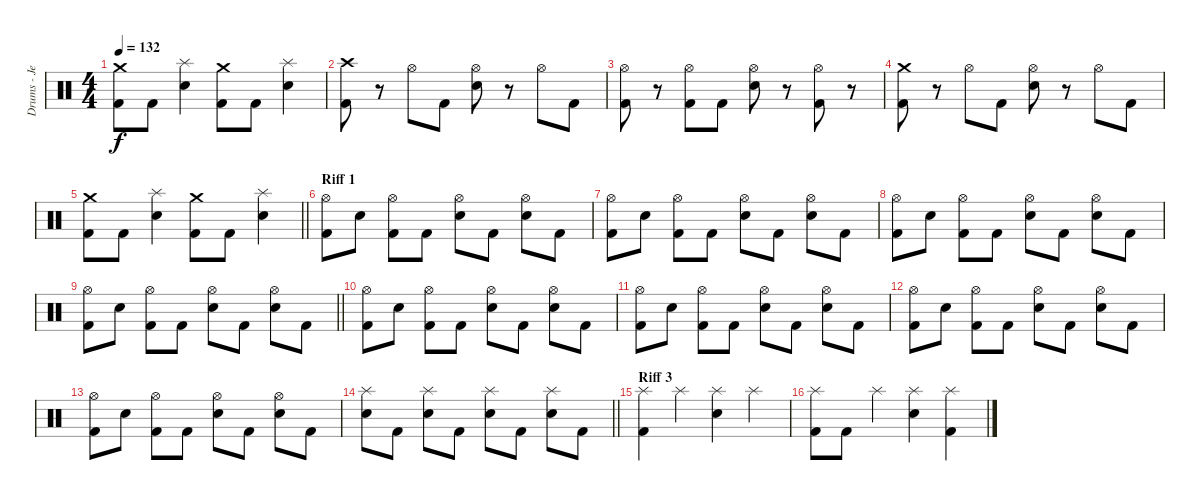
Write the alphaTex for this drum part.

\track ("Drums - Jess Margera" "Drums - Je") {instrument percussion}
\staff {score}
\articulation defaults
\ts (4 4)
\tempo 132
\clef neutral
\ks c
("Crash medium (hit)" "Kick (hit) 2").8{dy f} "Kick (hit) 2".8 ("Splash (hit)" "Electric Snare (hit)").4 ("Crash medium (hit)" "Kick (hit) 2").8 "Kick (hit) 2".8 ("Splash (hit)" "Electric Snare (hit)").4 |
("Crash high (hit)" "Kick (hit) 2").8 r.8 "Hi-Hat (open)".8 "Kick (hit) 2".8 ("Hi-Hat (open)" "Electric Snare (hit)").8 r.8 "Hi-Hat (open)".8 "Kick (hit) 2".8 |
("Hi-Hat (open)" "Kick (hit) 2").8 r.8 ("Hi-Hat (open)" "Kick (hit) 2").8 "Kick (hit) 2".8 ("Hi-Hat (open)" "Electric Snare (hit)").8 r.8 ("Hi-Hat (open)" "Kick (hit) 2").8 r.8 |
("Crash medium (hit)" "Kick (hit) 2").8 r.8 "Hi-Hat (open)".8 "Kick (hit) 2".8 ("Hi-Hat (open)" "Electric Snare (hit)").8 r.8 "Hi-Hat (open)".8 "Kick (hit) 2".8 |
\barLineRight lightlight
("Crash medium (hit)" "Kick (hit) 2").8 "Kick (hit) 2".8 ("Splash (hit)" "Electric Snare (hit)").4 ("Crash medium (hit)" "Kick (hit) 2").8 "Kick (hit) 2".8 ("Splash (hit)" "Electric Snare (hit)").4 |
\section ("" "Riff 1")
("Hi-Hat (open)" "Kick (hit) 2").8 "Electric Snare (hit)".8 ("Hi-Hat (open)" "Kick (hit) 2").8 "Kick (hit) 2".8 ("Hi-Hat (open)" "Electric Snare (hit)").8 "Kick (hit) 2".8 ("Hi-Hat (open)" "Electric Snare (hit)").8 "Kick (hit) 2".8 |
("Hi-Hat (open)" "Kick (hit) 2").8 "Electric Snare (hit)".8 ("Hi-Hat (open)" "Kick (hit) 2").8 "Kick (hit) 2".8 ("Hi-Hat (open)" "Electric Snare (hit)").8 "Kick (hit) 2".8 ("Hi-Hat (open)" "Electric Snare (hit)").8 "Kick (hit) 2".8 |
("Hi-Hat (open)" "Kick (hit) 2").8 "Electric Snare (hit)".8 ("Hi-Hat (open)" "Kick (hit) 2").8 "Kick (hit) 2".8 ("Hi-Hat (open)" "Electric Snare (hit)").8 "Kick (hit) 2".8 ("Hi-Hat (open)" "Electric Snare (hit)").8 "Kick (hit) 2".8 |
\barLineRight lightlight
("Hi-Hat (open)" "Kick (hit) 2").8 "Electric Snare (hit)".8 ("Hi-Hat (open)" "Kick (hit) 2").8 "Kick (hit) 2".8 ("Hi-Hat (open)" "Electric Snare (hit)").8 "Kick (hit) 2".8 ("Hi-Hat (open)" "Electric Snare (hit)").8 "Kick (hit) 2".8 |
("Hi-Hat (open)" "Kick (hit) 2").8 "Electric Snare (hit)".8 ("Hi-Hat (open)" "Kick (hit) 2").8 "Kick (hit) 2".8 ("Hi-Hat (open)" "Electric Snare (hit)").8 "Kick (hit) 2".8 ("Hi-Hat (open)" "Electric Snare (hit)").8 "Kick (hit) 2".8 |
("Hi-Hat (open)" "Kick (hit) 2").8 "Electric Snare (hit)".8 ("Hi-Hat (open)" "Kick (hit) 2").8 "Kick (hit) 2".8 ("Hi-Hat (open)" "Electric Snare (hit)").8 "Kick (hit) 2".8 ("Hi-Hat (open)" "Electric Snare (hit)").8 "Kick (hit) 2".8 |
("Hi-Hat (open)" "Kick (hit) 2").8 "Electric Snare (hit)".8 ("Hi-Hat (open)" "Kick (hit) 2").8 "Kick (hit) 2".8 ("Hi-Hat (open)" "Electric Snare (hit)").8 "Kick (hit) 2".8 ("Hi-Hat (open)" "Electric Snare (hit)").8 "Kick (hit) 2".8 |
("Hi-Hat (open)" "Kick (hit) 2").8 "Electric Snare (hit)".8 ("Hi-Hat (open)" "Kick (hit) 2").8 "Kick (hit) 2".8 ("Hi-Hat (open)" "Electric Snare (hit)").8 "Kick (hit) 2".8 ("Hi-Hat (open)" "Electric Snare (hit)").8 "Kick (hit) 2".8 |
\barLineRight lightlight
("Splash (hit)" "Electric Snare (hit)").8 "Kick (hit) 2".8 ("Splash (hit)" "Electric Snare (hit)").8 "Kick (hit) 2".8 ("Splash (hit)" "Electric Snare (hit)").8 "Kick (hit) 2".8 ("Splash (hit)" "Electric Snare (hit)").8 "Kick (hit) 2".8 |
\section ("" "Riff 3")
("Splash (hit)" "Kick (hit) 2").4 "Splash (hit)".4 ("Splash (hit)" "Electric Snare (hit)").4 "Splash (hit)".4 |
("Splash (hit)" "Kick (hit) 2").8 "Kick (hit) 2".8 "Splash (hit)".4 ("Splash (hit)" "Electric Snare (hit)").4 ("Splash (hit)" "Kick (hit) 2").4
